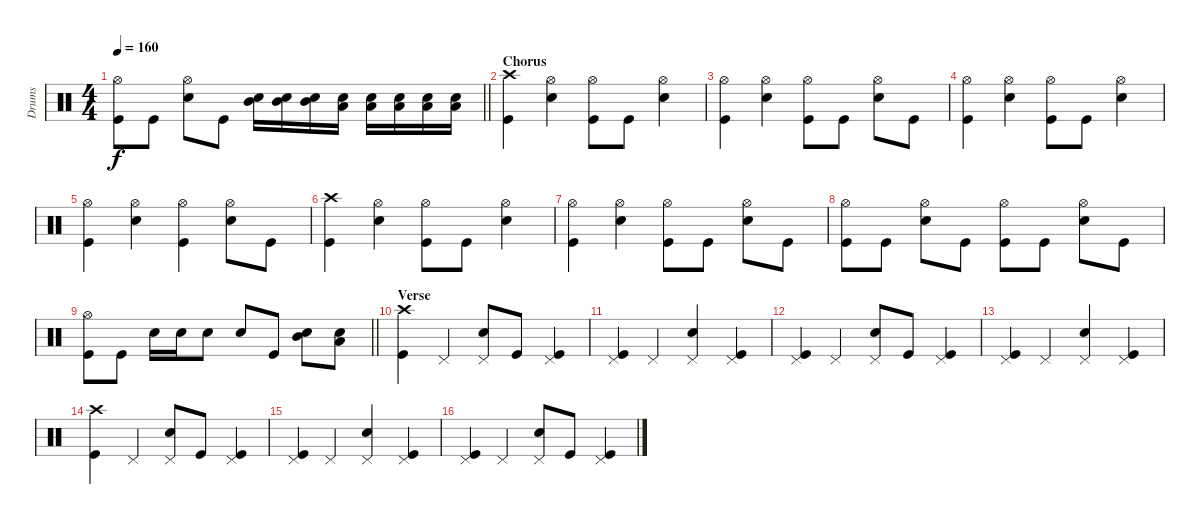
\track ("Drums " "Drums ") {instrument percussion}
\staff {score}
\articulation defaults
\ts (4 4)
\tempo 160
\clef neutral
\barLineRight lightlight
\ks c
("Hi-Hat (open)" "Kick (hit)").8{dy f} "Kick (hit)".8 ("Hi-Hat (open)" "Electric Snare (hit)").8 "Kick (hit)".8 ("Mid Tom (hit)" "Electric Snare (hit)").16 ("Mid Tom (hit)" "Electric Snare (hit)").16 ("Mid Tom (hit)" "Electric Snare (hit)").16 ("Low Tom (hit)" "Electric Snare (hit)").16 ("Low Tom (hit)" "Electric Snare (hit)").16 ("Low Tom (hit)" "Electric Snare (hit)").16 ("Low Floor Tom (hit)" "Electric Snare (hit)").16 ("Low Floor Tom (hit)" "Electric Snare (hit)").16 |
\section ("" "Chorus ")
("Crash high (hit)" "Kick (hit)").4 ("Hi-Hat (open)" "Electric Snare (hit)").4 ("Hi-Hat (open)" "Kick (hit)").8 "Kick (hit)".8 ("Hi-Hat (open)" "Electric Snare (hit)").4 |
("Hi-Hat (open)" "Kick (hit)").4 ("Hi-Hat (open)" "Electric Snare (hit)").4 ("Hi-Hat (open)" "Kick (hit)").8 "Kick (hit)".8 ("Hi-Hat (open)" "Electric Snare (hit)").8 "Kick (hit)".8 |
("Hi-Hat (open)" "Kick (hit)").4 ("Hi-Hat (open)" "Electric Snare (hit)").4 ("Hi-Hat (open)" "Kick (hit)").8 "Kick (hit)".8 ("Hi-Hat (open)" "Electric Snare (hit)").4 |
("Hi-Hat (open)" "Kick (hit)").4 ("Hi-Hat (open)" "Electric Snare (hit)").4 ("Hi-Hat (open)" "Kick (hit)").4 ("Hi-Hat (open)" "Electric Snare (hit)").8 "Kick (hit)".8 |
("Crash high (hit)" "Kick (hit)").4 ("Hi-Hat (open)" "Electric Snare (hit)").4 ("Hi-Hat (open)" "Kick (hit)").8 "Kick (hit)".8 ("Hi-Hat (open)" "Electric Snare (hit)").4 |
("Hi-Hat (open)" "Kick (hit)").4 ("Hi-Hat (open)" "Electric Snare (hit)").4 ("Hi-Hat (open)" "Kick (hit)").8 "Kick (hit)".8 ("Hi-Hat (open)" "Electric Snare (hit)").8 "Kick (hit)".8 |
("Hi-Hat (open)" "Kick (hit)").8 "Kick (hit)".8 ("Hi-Hat (open)" "Electric Snare (hit)").8 "Kick (hit)".8 ("Hi-Hat (open)" "Kick (hit)").8 "Kick (hit)".8 ("Hi-Hat (open)" "Electric Snare (hit)").8 "Kick (hit)".8 |
\barLineRight lightlight
("Hi-Hat (open)" "Kick (hit)").8 "Kick (hit)".8 "Electric Snare (hit)".16 "Electric Snare (hit)".16 "Electric Snare (hit)".8 "Electric Snare (hit)".8 "Kick (hit)".8 ("Mid Tom (hit)" "Electric Snare (hit)").8 ("Low Floor Tom (hit)" "Electric Snare (hit)").8 |
\section ("" "Verse ")
("Crash high (hit)" "Kick (hit)").4 "Pedal Hi-Hat (hit)".4 ("Pedal Hi-Hat (hit)" "Electric Snare (hit)").8 "Kick (hit)".8 ("Pedal Hi-Hat (hit)" "Kick (hit)").4 |
("Pedal Hi-Hat (hit)" "Kick (hit)").4 "Pedal Hi-Hat (hit)".4 ("Pedal Hi-Hat (hit)" "Electric Snare (hit)").4 ("Pedal Hi-Hat (hit)" "Kick (hit)").4 |
("Pedal Hi-Hat (hit)" "Kick (hit)").4 "Pedal Hi-Hat (hit)".4 ("Pedal Hi-Hat (hit)" "Electric Snare (hit)").8 "Kick (hit)".8 ("Pedal Hi-Hat (hit)" "Kick (hit)").4 |
("Pedal Hi-Hat (hit)" "Kick (hit)").4 "Pedal Hi-Hat (hit)".4 ("Pedal Hi-Hat (hit)" "Electric Snare (hit)").4 ("Pedal Hi-Hat (hit)" "Kick (hit)").4 |
("Crash high (hit)" "Kick (hit)").4 "Pedal Hi-Hat (hit)".4 ("Pedal Hi-Hat (hit)" "Electric Snare (hit)").8 "Kick (hit)".8 ("Pedal Hi-Hat (hit)" "Kick (hit)").4 |
("Pedal Hi-Hat (hit)" "Kick (hit)").4 "Pedal Hi-Hat (hit)".4 ("Pedal Hi-Hat (hit)" "Electric Snare (hit)").4 ("Pedal Hi-Hat (hit)" "Kick (hit)").4 |
("Pedal Hi-Hat (hit)" "Kick (hit)").4 "Pedal Hi-Hat (hit)".4 ("Pedal Hi-Hat (hit)" "Electric Snare (hit)").8 "Kick (hit)".8 ("Pedal Hi-Hat (hit)" "Kick (hit)").4
